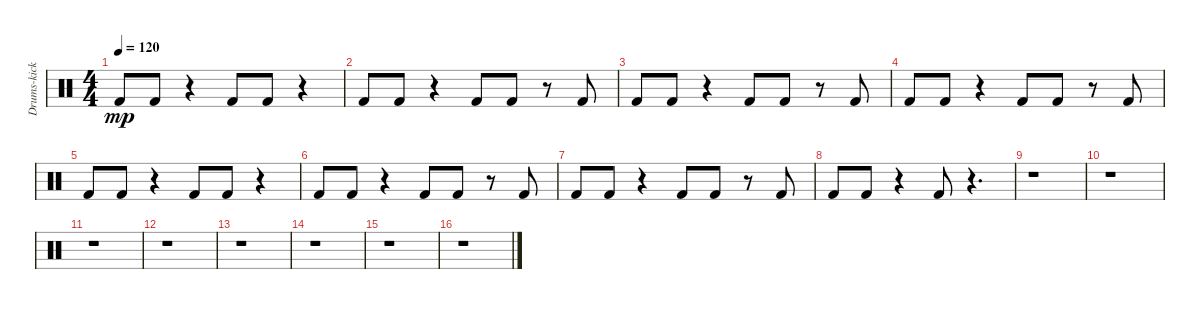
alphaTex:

\track ("Drums-kick drum 1" "Drums-kick") {instrument percussion}
\staff {score}
\articulation defaults
\ts (4 4)
\tempo 120
\clef neutral
\ks c "Kick (hit) 2".8{dy mp} "Kick (hit) 2".8
r.4 "Kick (hit) 2".8 "Kick (hit) 2".8 r.4 |
"Kick (hit) 2".8 "Kick (hit) 2".8 r.4 "Kick (hit) 2".8 "Kick (hit) 2".8 r.8 "Kick (hit) 2".8 |
"Kick (hit) 2".8 "Kick (hit) 2".8 r.4 "Kick (hit) 2".8 "Kick (hit) 2".8 r.8 "Kick (hit) 2".8 |
"Kick (hit) 2".8 "Kick (hit) 2".8 r.4 "Kick (hit) 2".8 "Kick (hit) 2".8 r.8 "Kick (hit) 2".8 |
"Kick (hit) 2".8 "Kick (hit) 2".8 r.4 "Kick (hit) 2".8 "Kick (hit) 2".8 r.4 |
"Kick (hit) 2".8 "Kick (hit) 2".8 r.4 "Kick (hit) 2".8 "Kick (hit) 2".8 r.8 "Kick (hit) 2".8 |
"Kick (hit) 2".8 "Kick (hit) 2".8 r.4 "Kick (hit) 2".8 "Kick (hit) 2".8 r.8 "Kick (hit) 2".8 |
"Kick (hit) 2".8 "Kick (hit) 2".8 r.4 "Kick (hit) 2".8 r.4{d} |
r.1 |
r.1 |
r.1 |
r.1 |
r.1 |
r.1 |
r.1 |
r.1
